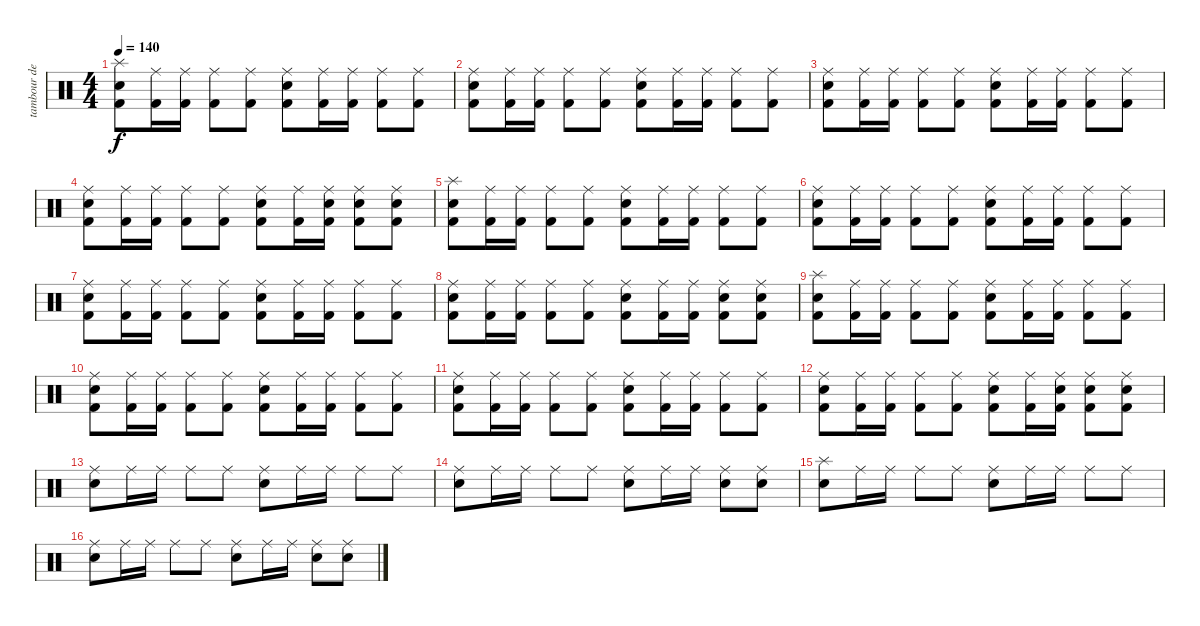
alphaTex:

\track ("tambour de guerre" "tambour de") {instrument percussion}
\staff {score}
\articulation defaults
\ts (4 4)
\tempo 140
\clef neutral
\ks c
("Kick (hit) 2" "Snare (hit) 2" "Splash (hit)").8{dy f} ("Kick (hit) 2" "Ride (middle)").16 ("Kick (hit) 2" "Ride (middle)").16 ("Kick (hit) 2" "Ride (middle)").8 ("Kick (hit) 2" "Ride (middle)").8 ("Kick (hit) 2" "Snare (hit) 2" "Ride (middle)").8 ("Kick (hit) 2" "Ride (middle)").16 ("Kick (hit) 2" "Ride (middle)").16 ("Kick (hit) 2" "Ride (middle)").8 ("Kick (hit) 2" "Ride (middle)").8 |
("Kick (hit) 2" "Snare (hit) 2" "Ride (middle)").8 ("Kick (hit) 2" "Ride (middle)").16 ("Kick (hit) 2" "Ride (middle)").16 ("Kick (hit) 2" "Ride (middle)").8 ("Kick (hit) 2" "Ride (middle)").8 ("Kick (hit) 2" "Snare (hit) 2" "Ride (middle)").8 ("Kick (hit) 2" "Ride (middle)").16 ("Kick (hit) 2" "Ride (middle)").16 ("Kick (hit) 2" "Ride (middle)").8 ("Kick (hit) 2" "Ride (middle)").8 |
("Kick (hit) 2" "Snare (hit) 2" "Ride (middle)").8 ("Kick (hit) 2" "Ride (middle)").16 ("Kick (hit) 2" "Ride (middle)").16 ("Kick (hit) 2" "Ride (middle)").8 ("Kick (hit) 2" "Ride (middle)").8 ("Kick (hit) 2" "Snare (hit) 2" "Ride (middle)").8 ("Kick (hit) 2" "Ride (middle)").16 ("Kick (hit) 2" "Ride (middle)").16 ("Kick (hit) 2" "Ride (middle)").8 ("Kick (hit) 2" "Ride (middle)").8 |
("Kick (hit) 2" "Snare (hit) 2" "Ride (middle)").8 ("Kick (hit) 2" "Ride (middle)").16 ("Kick (hit) 2" "Ride (middle)").16 ("Kick (hit) 2" "Ride (middle)").8 ("Kick (hit) 2" "Ride (middle)").8 ("Kick (hit) 2" "Snare (hit) 2" "Ride (middle)").8 ("Kick (hit) 2" "Ride (middle)").16 ("Kick (hit) 2" "Snare (hit) 2" "Ride (middle)").16 ("Kick (hit) 2" "Snare (hit) 2" "Ride (middle)").8 ("Kick (hit) 2" "Snare (hit) 2" "Ride (middle)").8 |
("Kick (hit) 2" "Snare (hit) 2" "Splash (hit)").8 ("Kick (hit) 2" "Ride (middle)").16 ("Kick (hit) 2" "Ride (middle)").16 ("Kick (hit) 2" "Ride (middle)").8 ("Kick (hit) 2" "Ride (middle)").8 ("Kick (hit) 2" "Snare (hit) 2" "Ride (middle)").8 ("Kick (hit) 2" "Ride (middle)").16 ("Kick (hit) 2" "Ride (middle)").16 ("Kick (hit) 2" "Ride (middle)").8 ("Kick (hit) 2" "Ride (middle)").8 |
("Kick (hit) 2" "Snare (hit) 2" "Ride (middle)").8 ("Kick (hit) 2" "Ride (middle)").16 ("Kick (hit) 2" "Ride (middle)").16 ("Kick (hit) 2" "Ride (middle)").8 ("Kick (hit) 2" "Ride (middle)").8 ("Kick (hit) 2" "Snare (hit) 2" "Ride (middle)").8 ("Kick (hit) 2" "Ride (middle)").16 ("Kick (hit) 2" "Ride (middle)").16 ("Kick (hit) 2" "Ride (middle)").8 ("Kick (hit) 2" "Ride (middle)").8 |
("Kick (hit) 2" "Snare (hit) 2" "Ride (middle)").8 ("Kick (hit) 2" "Ride (middle)").16 ("Kick (hit) 2" "Ride (middle)").16 ("Kick (hit) 2" "Ride (middle)").8 ("Kick (hit) 2" "Ride (middle)").8 ("Kick (hit) 2" "Snare (hit) 2" "Ride (middle)").8 ("Kick (hit) 2" "Ride (middle)").16 ("Kick (hit) 2" "Ride (middle)").16 ("Kick (hit) 2" "Ride (middle)").8 ("Kick (hit) 2" "Ride (middle)").8 |
("Kick (hit) 2" "Snare (hit) 2" "Ride (middle)").8 ("Kick (hit) 2" "Ride (middle)").16 ("Kick (hit) 2" "Ride (middle)").16 ("Kick (hit) 2" "Ride (middle)").8 ("Kick (hit) 2" "Ride (middle)").8 ("Kick (hit) 2" "Snare (hit) 2" "Ride (middle)").8 ("Kick (hit) 2" "Ride (middle)").16 ("Kick (hit) 2" "Ride (middle)").16 ("Kick (hit) 2" "Snare (hit) 2" "Ride (middle)").8 ("Kick (hit) 2" "Snare (hit) 2" "Ride (middle)").8 |
("Kick (hit) 2" "Snare (hit) 2" "Splash (hit)").8 ("Kick (hit) 2" "Ride (middle)").16 ("Kick (hit) 2" "Ride (middle)").16 ("Kick (hit) 2" "Ride (middle)").8 ("Kick (hit) 2" "Ride (middle)").8 ("Kick (hit) 2" "Snare (hit) 2" "Ride (middle)").8 ("Kick (hit) 2" "Ride (middle)").16 ("Kick (hit) 2" "Ride (middle)").16 ("Kick (hit) 2" "Ride (middle)").8 ("Kick (hit) 2" "Ride (middle)").8 |
("Kick (hit) 2" "Snare (hit) 2" "Ride (middle)").8 ("Kick (hit) 2" "Ride (middle)").16 ("Kick (hit) 2" "Ride (middle)").16 ("Kick (hit) 2" "Ride (middle)").8 ("Kick (hit) 2" "Ride (middle)").8 ("Kick (hit) 2" "Snare (hit) 2" "Ride (middle)").8 ("Kick (hit) 2" "Ride (middle)").16 ("Kick (hit) 2" "Ride (middle)").16 ("Kick (hit) 2" "Ride (middle)").8 ("Kick (hit) 2" "Ride (middle)").8 |
("Kick (hit) 2" "Snare (hit) 2" "Ride (middle)").8 ("Kick (hit) 2" "Ride (middle)").16 ("Kick (hit) 2" "Ride (middle)").16 ("Kick (hit) 2" "Ride (middle)").8 ("Kick (hit) 2" "Ride (middle)").8 ("Kick (hit) 2" "Snare (hit) 2" "Ride (middle)").8 ("Kick (hit) 2" "Ride (middle)").16 ("Kick (hit) 2" "Ride (middle)").16 ("Kick (hit) 2" "Ride (middle)").8 ("Kick (hit) 2" "Ride (middle)").8 |
("Kick (hit) 2" "Snare (hit) 2" "Ride (middle)").8 ("Kick (hit) 2" "Ride (middle)").16 ("Kick (hit) 2" "Ride (middle)").16 ("Kick (hit) 2" "Ride (middle)").8 ("Kick (hit) 2" "Ride (middle)").8 ("Kick (hit) 2" "Snare (hit) 2" "Ride (middle)").8 ("Kick (hit) 2" "Ride (middle)").16 ("Kick (hit) 2" "Snare (hit) 2" "Ride (middle)").16 ("Kick (hit) 2" "Snare (hit) 2" "Ride (middle)").8 ("Kick (hit) 2" "Snare (hit) 2" "Ride (middle)").8 |
("Snare (hit) 2" "Ride (middle)").8 "Ride (middle)".16 "Ride (middle)".16 "Ride (middle)".8 "Ride (middle)".8 ("Snare (hit) 2" "Ride (middle)").8 "Ride (middle)".16 "Ride (middle)".16 "Ride (middle)".8 "Ride (middle)".8 |
("Snare (hit) 2" "Ride (middle)").8 "Ride (middle)".16 "Ride (middle)".16 "Ride (middle)".8 "Ride (middle)".8 ("Snare (hit) 2" "Ride (middle)").8 "Ride (middle)".16 "Ride (middle)".16 ("Snare (hit) 2" "Ride (middle)").8 ("Snare (hit) 2" "Ride (middle)").8 |
("Snare (hit) 2" "Splash (hit)").8 "Ride (middle)".16 "Ride (middle)".16 "Ride (middle)".8 "Ride (middle)".8 ("Snare (hit) 2" "Ride (middle)").8 "Ride (middle)".16 "Ride (middle)".16 "Ride (middle)".8 "Ride (middle)".8 |
("Snare (hit) 2" "Ride (middle)").8 "Ride (middle)".16 "Ride (middle)".16 "Ride (middle)".8 "Ride (middle)".8 ("Snare (hit) 2" "Ride (middle)").8 "Ride (middle)".16 "Ride (middle)".16 ("Snare (hit) 2" "Ride (middle)").8 ("Snare (hit) 2" "Ride (middle)").8
